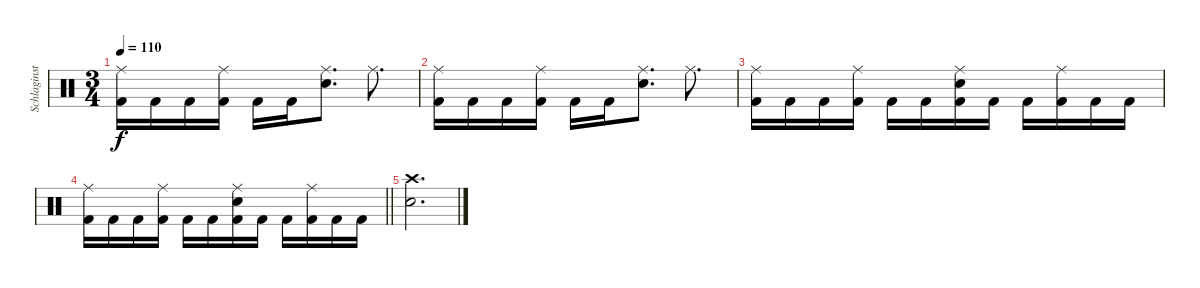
\track ("Schlaginstrumente - Auswahl" "Schlaginst") {instrument percussion}
\staff {score}
\articulation defaults
\ts (3 4)
\tempo 110
\clef neutral
\ks c
("Ride (middle)" "Kick (hit) 2").16{dy f} "Kick (hit) 2".16 "Kick (hit) 2".16 ("Ride (middle)" "Kick (hit) 2").16 "Kick (hit) 2".16 "Kick (hit) 2".16 ("Ride (middle)" "Snare (hit) 2").8{d} "Ride (middle)".8{d} |
("Ride (middle)" "Kick (hit) 2").16 "Kick (hit) 2".16 "Kick (hit) 2".16 ("Ride (middle)" "Kick (hit) 2").16 "Kick (hit) 2".16 "Kick (hit) 2".16 ("Ride (middle)" "Snare (hit) 2").8{d} "Ride (middle)".8{d} |
("Ride (middle)" "Kick (hit) 2").16 "Kick (hit) 2".16 "Kick (hit) 2".16 ("Ride (middle)" "Kick (hit) 2").16 "Kick (hit) 2".16 "Kick (hit) 2".16 ("Ride (middle)" "Snare (hit) 2" "Kick (hit) 2").16 "Kick (hit) 2".16 "Kick (hit) 2".16 ("Ride (middle)" "Kick (hit) 2").16 "Kick (hit) 2".16 "Kick (hit) 2".16 |
\barLineRight lightlight
("Ride (middle)" "Kick (hit) 2").16 "Kick (hit) 2".16 "Kick (hit) 2".16 ("Ride (middle)" "Kick (hit) 2").16 "Kick (hit) 2".16 "Kick (hit) 2".16 ("Ride (middle)" "Snare (hit) 2" "Kick (hit) 2").16 "Kick (hit) 2".16 "Kick (hit) 2".16 ("Ride (middle)" "Kick (hit) 2").16 "Kick (hit) 2".16 "Kick (hit) 2".16 |
("Crash high (hit)" "Snare (hit) 2").2{d}
